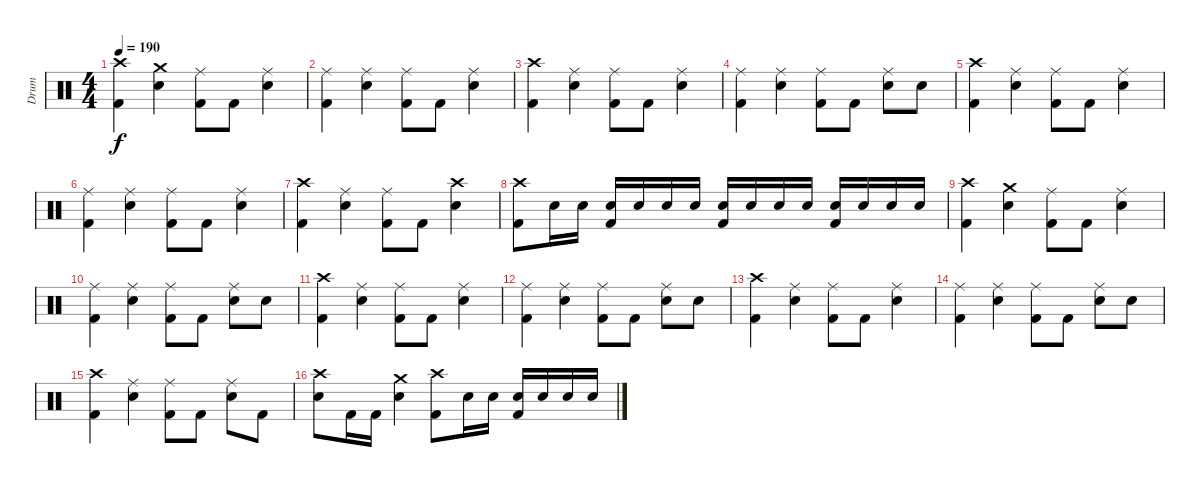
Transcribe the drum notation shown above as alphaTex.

\track ("Drum" "Drum") {instrument percussion}
\staff {score}
\articulation defaults
\ts (4 4)
\tempo 190
\clef neutral
\ks c
("Crash high (hit)" "Kick (hit) 2").4{dy f} ("Crash medium (hit)" "Electric Snare (hit)").4 ("Ride (middle)" "Kick (hit) 2").8 "Kick (hit) 2".8 ("Ride (middle)" "Electric Snare (hit)").4 |
("Ride (middle)" "Kick (hit) 2").4 ("Ride (middle)" "Electric Snare (hit)").4 ("Ride (middle)" "Kick (hit) 2").8 "Kick (hit) 2".8 ("Ride (middle)" "Electric Snare (hit)").4 |
("Crash high (hit)" "Kick (hit) 2").4 ("Ride (middle)" "Electric Snare (hit)").4 ("Ride (middle)" "Kick (hit) 2").8 "Kick (hit) 2".8 ("Ride (middle)" "Electric Snare (hit)").4 |
("Ride (middle)" "Kick (hit) 2").4 ("Ride (middle)" "Electric Snare (hit)").4 ("Ride (middle)" "Kick (hit) 2").8 "Kick (hit) 2".8 ("Ride (middle)" "Electric Snare (hit)").8 "Electric Snare (hit)".8 |
("Crash high (hit)" "Kick (hit) 2").4 ("Ride (middle)" "Electric Snare (hit)").4 ("Ride (middle)" "Kick (hit) 2").8 "Kick (hit) 2".8 ("Ride (middle)" "Electric Snare (hit)").4 |
("Ride (middle)" "Kick (hit) 2").4 ("Ride (middle)" "Electric Snare (hit)").4 ("Ride (middle)" "Kick (hit) 2").8 "Kick (hit) 2".8 ("Ride (middle)" "Electric Snare (hit)").4 |
("Crash high (hit)" "Kick (hit) 2").4 ("Ride (middle)" "Electric Snare (hit)").4 ("Ride (middle)" "Kick (hit) 2").8 "Kick (hit) 2".8 ("Crash high (hit)" "Electric Snare (hit)").4 |
("Crash high (hit)" "Kick (hit) 2").8 "Electric Snare (hit)".16 "Electric Snare (hit)".16 ("Electric Snare (hit)" "Kick (hit) 2").16 "Electric Snare (hit)".16 "Electric Snare (hit)".16 "Electric Snare (hit)".16 ("Electric Snare (hit)" "Kick (hit) 2").16 "Electric Snare (hit)".16 "Electric Snare (hit)".16 "Electric Snare (hit)".16 ("Electric Snare (hit)" "Kick (hit) 2").16 "Electric Snare (hit)".16 "Electric Snare (hit)".16 "Electric Snare (hit)".16 |
("Crash high (hit)" "Kick (hit) 2").4 ("Crash medium (hit)" "Electric Snare (hit)").4 ("Ride (middle)" "Kick (hit) 2").8 "Kick (hit) 2".8 ("Ride (middle)" "Electric Snare (hit)").4 |
("Ride (middle)" "Kick (hit) 2").4 ("Ride (middle)" "Electric Snare (hit)").4 ("Ride (middle)" "Kick (hit) 2").8 "Kick (hit) 2".8 ("Ride (middle)" "Electric Snare (hit)").8 "Electric Snare (hit)".8 |
("Crash high (hit)" "Kick (hit) 2").4 ("Ride (middle)" "Electric Snare (hit)").4 ("Ride (middle)" "Kick (hit) 2").8 "Kick (hit) 2".8 ("Ride (middle)" "Electric Snare (hit)").4 |
("Ride (middle)" "Kick (hit) 2").4 ("Ride (middle)" "Electric Snare (hit)").4 ("Ride (middle)" "Kick (hit) 2").8 "Kick (hit) 2".8 ("Ride (middle)" "Electric Snare (hit)").8 "Electric Snare (hit)".8 |
("Crash high (hit)" "Kick (hit) 2").4 ("Ride (middle)" "Electric Snare (hit)").4 ("Ride (middle)" "Kick (hit) 2").8 "Kick (hit) 2".8 ("Ride (middle)" "Electric Snare (hit)").4 |
("Ride (middle)" "Kick (hit) 2").4 ("Ride (middle)" "Electric Snare (hit)").4 ("Ride (middle)" "Kick (hit) 2").8 "Kick (hit) 2".8 ("Ride (middle)" "Electric Snare (hit)").8 "Electric Snare (hit)".8 |
("Crash high (hit)" "Kick (hit) 2").4 ("Ride (middle)" "Electric Snare (hit)").4 ("Ride (middle)" "Kick (hit) 2").8 "Kick (hit) 2".8 ("Ride (middle)" "Electric Snare (hit)").8 "Kick (hit) 2".8 |
("Crash high (hit)" "Electric Snare (hit)").8 "Kick (hit) 2".16 "Kick (hit) 2".16 ("Crash medium (hit)" "Electric Snare (hit)").4 ("Crash high (hit)" "Kick (hit) 2").8 "Electric Snare (hit)".16 "Electric Snare (hit)".16 ("Electric Snare (hit)" "Kick (hit) 2").16 "Electric Snare (hit)".16 "Electric Snare (hit)".16 "Electric Snare (hit)".16
